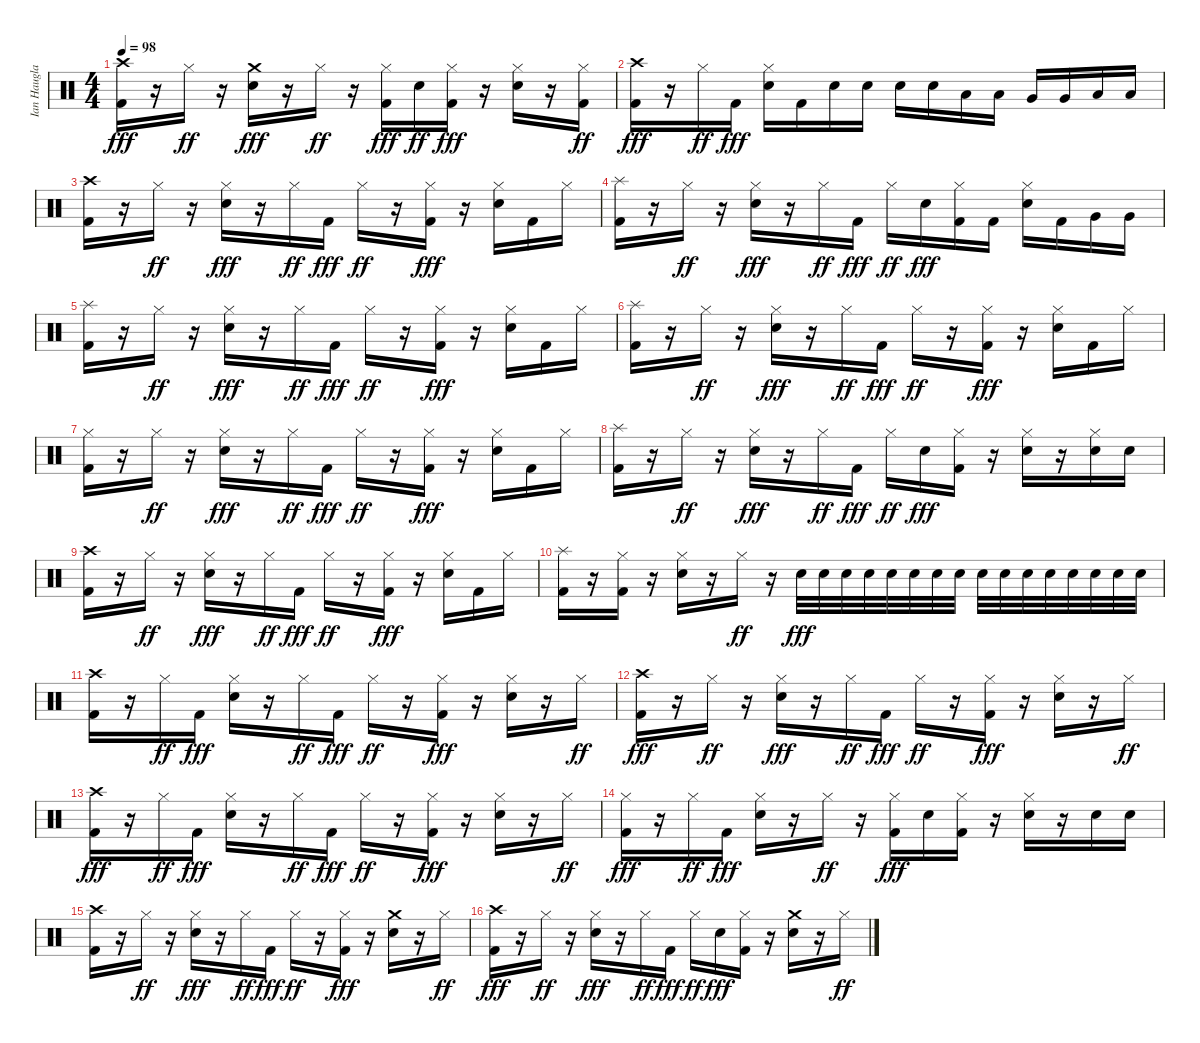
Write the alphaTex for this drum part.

\track ("Ian Haugland" "Ian Haugla") {instrument percussion}
\staff {score}
\articulation defaults
\ts (4 4)
\tempo 98
\clef neutral
\ks c
("Crash high (hit)" "Kick (hit) 2").16{dy fff} r.16 "Hi-Hat (closed)".16{dy ff} r.16 ("Crash medium (hit)" "Electric Snare (hit)").16{dy fff} r.16 "Hi-Hat (closed)".16{dy ff} r.16 ("Hi-Hat (closed)" "Kick (hit) 2").16{dy fff} "Electric Snare (hit)".16{dy ff} ("Hi-Hat (closed)" "Kick (hit) 2").16{dy fff} r.16 ("Hi-Hat (closed)" "Electric Snare (hit)").16 r.16 ("Hi-Hat (closed)" "Kick (hit) 2").16{dy ff} |
("Crash high (hit)" "Kick (hit) 2").16{dy fff} r.16 "Hi-Hat (closed)".16{dy ff} "Kick (hit) 2".16{dy fff} ("Hi-Hat (closed)" "Electric Snare (hit)").16 "Kick (hit) 2".16 "Electric Snare (hit)".16 "Electric Snare (hit)".16 "Electric Snare (hit)".16 "Electric Snare (hit)".16 "Low Tom (hit)".16 "Low Tom (hit)".16 "Very Low Tom (hit)".16 "Very Low Tom (hit)".16 "Low Floor Tom (hit)".16 "Low Floor Tom (hit)".16 |
("Crash high (hit)" "Kick (hit) 2").16 r.16 "Hi-Hat (closed)".16{dy ff} r.16 ("Hi-Hat (closed)" "Electric Snare (hit)").16{dy fff} r.16 "Hi-Hat (closed)".16{dy ff} "Kick (hit) 2".16{dy fff} "Hi-Hat (closed)".16{dy ff} r.16 ("Hi-Hat (closed)" "Kick (hit) 2").16{dy fff} r.16 ("Hi-Hat (closed)" "Electric Snare (hit)").16 "Kick (hit) 2".16 "Hi-Hat (closed)".16 |
("Splash (hit)" "Kick (hit) 2").16 r.16 "Hi-Hat (closed)".16{dy ff} r.16 ("Hi-Hat (closed)" "Electric Snare (hit)").16{dy fff} r.16 "Hi-Hat (closed)".16{dy ff} "Kick (hit) 2".16{dy fff} "Hi-Hat (closed)".16{dy ff} "Electric Snare (hit)".16{dy fff} ("Hi-Hat (closed)" "Kick (hit) 2").16 "Kick (hit) 2".16 ("Hi-Hat (closed)" "Electric Snare (hit)").16 "Kick (hit) 2".16 "Very Low Tom (hit)".16 "Very Low Tom (hit)".16 |
("Splash (hit)" "Kick (hit) 2").16 r.16 "Hi-Hat (closed)".16{dy ff} r.16 ("Hi-Hat (closed)" "Electric Snare (hit)").16{dy fff} r.16 "Hi-Hat (closed)".16{dy ff} "Kick (hit) 2".16{dy fff} "Hi-Hat (closed)".16{dy ff} r.16 ("Hi-Hat (closed)" "Kick (hit) 2").16{dy fff} r.16 ("Hi-Hat (closed)" "Electric Snare (hit)").16 "Kick (hit) 2".16 "Hi-Hat (closed)".16 |
("Splash (hit)" "Kick (hit) 2").16 r.16 "Hi-Hat (closed)".16{dy ff} r.16 ("Hi-Hat (closed)" "Electric Snare (hit)").16{dy fff} r.16 "Hi-Hat (closed)".16{dy ff} "Kick (hit) 2".16{dy fff} "Hi-Hat (closed)".16{dy ff} r.16 ("Hi-Hat (closed)" "Kick (hit) 2").16{dy fff} r.16 ("Hi-Hat (closed)" "Electric Snare (hit)").16 "Kick (hit) 2".16 "Hi-Hat (closed)".16 |
("Hi-Hat (closed)" "Kick (hit) 2").16 r.16 "Hi-Hat (closed)".16{dy ff} r.16 ("Hi-Hat (closed)" "Electric Snare (hit)").16{dy fff} r.16 "Hi-Hat (closed)".16{dy ff} "Kick (hit) 2".16{dy fff} "Hi-Hat (closed)".16{dy ff} r.16 ("Hi-Hat (closed)" "Kick (hit) 2").16{dy fff} r.16 ("Hi-Hat (closed)" "Electric Snare (hit)").16 "Kick (hit) 2".16 "Hi-Hat (closed)".16 |
("Splash (hit)" "Kick (hit) 2").16 r.16 "Hi-Hat (closed)".16{dy ff} r.16 ("Hi-Hat (closed)" "Electric Snare (hit)").16{dy fff} r.16 "Hi-Hat (closed)".16{dy ff} "Kick (hit) 2".16{dy fff} "Hi-Hat (closed)".16{dy ff} "Electric Snare (hit)".16{dy fff} ("Hi-Hat (closed)" "Kick (hit) 2").16 r.16 ("Hi-Hat (closed)" "Electric Snare (hit)").16 r.16 ("Hi-Hat (closed)" "Electric Snare (hit)").16 "Electric Snare (hit)".16 |
("Crash high (hit)" "Kick (hit) 2").16 r.16 "Hi-Hat (closed)".16{dy ff} r.16 ("Hi-Hat (closed)" "Electric Snare (hit)").16{dy fff} r.16 "Hi-Hat (closed)".16{dy ff} "Kick (hit) 2".16{dy fff} "Hi-Hat (closed)".16{dy ff} r.16 ("Hi-Hat (closed)" "Kick (hit) 2").16{dy fff} r.16 ("Hi-Hat (closed)" "Electric Snare (hit)").16 "Kick (hit) 2".16 "Hi-Hat (closed)".16 |
("Splash (hit)" "Kick (hit) 2").16 r.16 ("Hi-Hat (closed)" "Kick (hit) 2").16 r.16 ("Hi-Hat (closed)" "Electric Snare (hit)").16 r.16 "Hi-Hat (closed)".16{dy ff} r.16 "Electric Snare (hit)".32{dy fff} "Electric Snare (hit)".32 "Electric Snare (hit)".32 "Electric Snare (hit)".32 "Electric Snare (hit)".32 "Electric Snare (hit)".32 "Electric Snare (hit)".32 "Electric Snare (hit)".32 "Electric Snare (hit)".32 "Electric Snare (hit)".32 "Electric Snare (hit)".32 "Electric Snare (hit)".32 "Electric Snare (hit)".32 "Electric Snare (hit)".32 "Electric Snare (hit)".32 "Electric Snare (hit)".32 |
("Crash high (hit)" "Kick (hit) 2").16 r.16 "Hi-Hat (closed)".16{dy ff} "Kick (hit) 2".16{dy fff} ("Hi-Hat (closed)" "Electric Snare (hit)").16 r.16 "Hi-Hat (closed)".16{dy ff} "Kick (hit) 2".16{dy fff} "Hi-Hat (closed)".16{dy ff} r.16 ("Hi-Hat (closed)" "Kick (hit) 2").16{dy fff} r.16 ("Hi-Hat (closed)" "Electric Snare (hit)").16 r.16 "Hi-Hat (closed)".16{dy ff} |
("Crash high (hit)" "Kick (hit) 2").16{dy fff} r.16 "Hi-Hat (closed)".16{dy ff} r.16 ("Hi-Hat (closed)" "Electric Snare (hit)").16{dy fff} r.16 "Hi-Hat (closed)".16{dy ff} "Kick (hit) 2".16{dy fff} "Hi-Hat (closed)".16{dy ff} r.16 ("Hi-Hat (closed)" "Kick (hit) 2").16{dy fff} r.16 ("Hi-Hat (closed)" "Electric Snare (hit)").16 r.16 "Hi-Hat (closed)".16{dy ff} |
("Crash high (hit)" "Kick (hit) 2").16{dy fff} r.16 "Hi-Hat (closed)".16{dy ff} "Kick (hit) 2".16{dy fff} ("Hi-Hat (closed)" "Electric Snare (hit)").16 r.16 "Hi-Hat (closed)".16{dy ff} "Kick (hit) 2".16{dy fff} "Hi-Hat (closed)".16{dy ff} r.16 ("Hi-Hat (closed)" "Kick (hit) 2").16{dy fff} r.16 ("Hi-Hat (closed)" "Electric Snare (hit)").16 r.16 "Hi-Hat (closed)".16{dy ff} |
("Hi-Hat (closed)" "Kick (hit) 2").16{dy fff} r.16 "Hi-Hat (closed)".16{dy ff} "Kick (hit) 2".16{dy fff} ("Hi-Hat (closed)" "Electric Snare (hit)").16 r.16 "Hi-Hat (closed)".16{dy ff} r.16 ("Hi-Hat (closed)" "Kick (hit) 2").16{dy fff} "Electric Snare (hit)".16 ("Hi-Hat (closed)" "Kick (hit) 2").16 r.16 ("Hi-Hat (closed)" "Electric Snare (hit)").16 r.16 "Electric Snare (hit)".16 "Electric Snare (hit)".16 |
("Crash high (hit)" "Kick (hit) 2").16 r.16 "Hi-Hat (closed)".16{dy ff} r.16 ("Hi-Hat (closed)" "Electric Snare (hit)").16{dy fff} r.16 "Hi-Hat (closed)".16{dy ff} "Kick (hit) 2".16{dy fff} "Hi-Hat (closed)".16{dy ff} r.16 ("Hi-Hat (closed)" "Kick (hit) 2").16{dy fff} r.16 ("Crash medium (hit)" "Electric Snare (hit)").16 r.16 "Hi-Hat (closed)".16{dy ff} |
("Crash high (hit)" "Kick (hit) 2").16{dy fff} r.16 "Hi-Hat (closed)".16{dy ff} r.16 ("Hi-Hat (closed)" "Electric Snare (hit)").16{dy fff} r.16 "Hi-Hat (closed)".16{dy ff} "Kick (hit) 2".16{dy fff} "Hi-Hat (closed)".16{dy ff} "Electric Snare (hit)".16{dy fff} ("Hi-Hat (closed)" "Kick (hit) 2").16 r.16 ("Crash medium (hit)" "Electric Snare (hit)").16 r.16 "Hi-Hat (closed)".16{dy ff}
